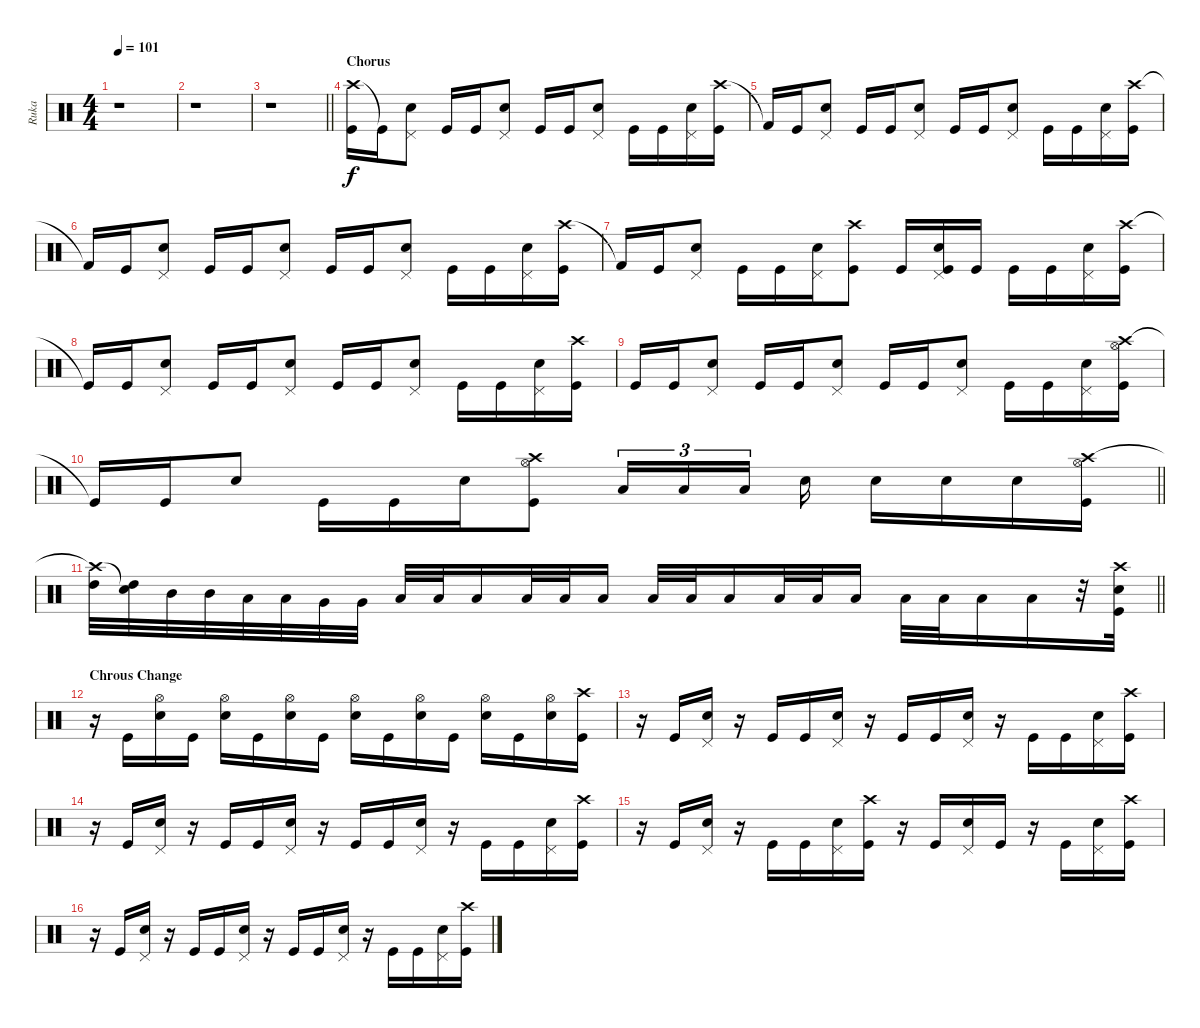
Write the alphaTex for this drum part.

\track ("Ruka" "Ruka") {instrument percussion}
\staff {score}
\articulation defaults
\ts (4 4)
\tempo 101
\clef neutral
\ks c
r.1{dy f} |
r.1 |
\barLineRight lightlight
r.1 |
\section ("" "Chorus")
("Crash high (hit)" "Kick (hit)").16 "Kick (hit)"{t}.16 ("Pedal Hi-Hat (hit)" "Snare (hit) 2").8 "Kick (hit)".16 "Kick (hit)".16 ("Pedal Hi-Hat (hit)" "Snare (hit) 2").8 "Kick (hit)".16 "Kick (hit)".16 ("Pedal Hi-Hat (hit)" "Snare (hit) 2").8 "Kick (hit)".16 "Kick (hit)".16 ("Pedal Hi-Hat (hit)" "Snare (hit) 2").16 ("Crash high (hit)" "Kick (hit)").16 |
"Kick (hit) 2"{t}.16 "Kick (hit)".16 ("Pedal Hi-Hat (hit)" "Snare (hit) 2").8 "Kick (hit)".16 "Kick (hit)".16 ("Pedal Hi-Hat (hit)" "Snare (hit) 2").8 "Kick (hit)".16 "Kick (hit)".16 ("Pedal Hi-Hat (hit)" "Snare (hit) 2").8 "Kick (hit)".16 "Kick (hit)".16 ("Pedal Hi-Hat (hit)" "Snare (hit) 2").16 ("Crash high (hit)" "Kick (hit)").16 |
"Kick (hit) 2"{t}.16 "Kick (hit)".16 ("Pedal Hi-Hat (hit)" "Snare (hit) 2").8 "Kick (hit)".16 "Kick (hit)".16 ("Pedal Hi-Hat (hit)" "Snare (hit) 2").8 "Kick (hit)".16 "Kick (hit)".16 ("Pedal Hi-Hat (hit)" "Snare (hit) 2").8 "Kick (hit)".16 "Kick (hit)".16 ("Pedal Hi-Hat (hit)" "Snare (hit) 2").16 ("Crash high (hit)" "Kick (hit)").16 |
"Kick (hit) 2"{t}.16 "Kick (hit)".16 ("Pedal Hi-Hat (hit)" "Snare (hit) 2").8 "Kick (hit)".16 "Kick (hit)".16 ("Pedal Hi-Hat (hit)" "Snare (hit) 2").16 ("Crash high (hit)" "Kick (hit)").8 "Kick (hit)".16 ("Pedal Hi-Hat (hit)" "Snare (hit) 2" "Kick (hit)").16 "Kick (hit)".16 "Kick (hit)".16 "Kick (hit)".16 ("Pedal Hi-Hat (hit)" "Snare (hit) 2").16 ("Crash high (hit)" "Kick (hit)").16 |
"Kick (hit)"{t}.16 "Kick (hit)".16 ("Pedal Hi-Hat (hit)" "Snare (hit) 2").8 "Kick (hit)".16 "Kick (hit)".16 ("Pedal Hi-Hat (hit)" "Snare (hit) 2").8 "Kick (hit)".16 "Kick (hit)".16 ("Pedal Hi-Hat (hit)" "Snare (hit) 2").8 "Kick (hit)".16 "Kick (hit)".16 ("Pedal Hi-Hat (hit)" "Snare (hit) 2").16 ("Crash high (hit)" "Kick (hit)").16 |
"Kick (hit)".16 "Kick (hit)".16 ("Pedal Hi-Hat (hit)" "Snare (hit) 2").8 "Kick (hit)".16 "Kick (hit)".16 ("Pedal Hi-Hat (hit)" "Snare (hit) 2").8 "Kick (hit)".16 "Kick (hit)".16 ("Pedal Hi-Hat (hit)" "Snare (hit) 2").8 "Kick (hit)".16 "Kick (hit)".16 ("Pedal Hi-Hat (hit)" "Snare (hit) 2").16 ("Crash high (hit)" "Hi-Hat (open)" "Kick (hit)").16 |
\barLineRight lightlight "Kick (hit)"{t}.16 "Kick (hit)".16 "Snare (hit) 2".8 "Kick (hit)".16 "Kick (hit)".16 "Snare (hit) 2".16
("Crash high (hit)" "Hi-Hat (open)" "Kick (hit)").8 "Low Tom (hit)".16{tu (3 2)} "Low Tom (hit)".16{tu (3 2)} "Low Tom (hit)".16{tu (3 2) beam splitsecondary} "Snare (hit) 2".16 "Snare (hit) 2".16 "Snare (hit) 2".16 "Snare (hit) 2".16 ("Crash high (hit)" "Hi-Hat (open)" "Kick (hit)").16 |
\barLineRight lightlight
("Crash high (hit)"{t} "High Tom (hit)").32 ("Snare (hit)"{t} "High Tom (hit)").32 "Mid Tom (hit)".32 "Mid Tom (hit)".32 "Low Tom (hit)".32 "Low Tom (hit)".32 "Very Low Tom (hit)".32 "Very Low Tom (hit)".32 "Low Tom (hit)".32 "Low Tom (hit)".32 "Low Tom (hit)".16 "Low Tom (hit)".32 "Low Tom (hit)".32 "Low Tom (hit)".16 "Low Tom (hit)".32 "Low Tom (hit)".32 "Low Tom (hit)".16 "Low Tom (hit)".32 "Low Tom (hit)".32 "Low Tom (hit)".16 "Low Tom (hit)".32 "Low Tom (hit)".32 "Low Tom (hit)".16 "Low Tom (hit)".16 r.32 ("Crash high (hit)" "Snare (hit) 2" "Kick (hit)").32 |
\section ("" "Chrous Change")
r.16 "Kick (hit)".16 ("Hi-Hat (open)" "Snare (hit) 2").16 "Kick (hit)".16 ("Hi-Hat (open)" "Snare (hit) 2").16 "Kick (hit)".16 ("Hi-Hat (open)" "Snare (hit) 2").16 "Kick (hit)".16 ("Hi-Hat (open)" "Snare (hit) 2").16 "Kick (hit)".16 ("Hi-Hat (open)" "Snare (hit) 2").16 "Kick (hit)".16 ("Hi-Hat (open)" "Snare (hit) 2").16 "Kick (hit)".16 ("Hi-Hat (open)" "Snare (hit) 2").16 ("Crash high (hit)" "Kick (hit)").16 |
r.16 "Kick (hit)".16 ("Pedal Hi-Hat (hit)" "Snare (hit) 2").16 r.16 "Kick (hit)".16 "Kick (hit)".16 ("Pedal Hi-Hat (hit)" "Snare (hit) 2").16 r.16 "Kick (hit)".16 "Kick (hit)".16 ("Pedal Hi-Hat (hit)" "Snare (hit) 2").16 r.16 "Kick (hit)".16 "Kick (hit)".16 ("Pedal Hi-Hat (hit)" "Snare (hit) 2").16 ("Crash high (hit)" "Kick (hit)").16 |
r.16 "Kick (hit)".16 ("Pedal Hi-Hat (hit)" "Snare (hit) 2").16 r.16 "Kick (hit)".16 "Kick (hit)".16 ("Pedal Hi-Hat (hit)" "Snare (hit) 2").16 r.16 "Kick (hit)".16 "Kick (hit)".16 ("Pedal Hi-Hat (hit)" "Snare (hit) 2").16 r.16 "Kick (hit)".16 "Kick (hit)".16 ("Pedal Hi-Hat (hit)" "Snare (hit) 2").16 ("Crash high (hit)" "Kick (hit)").16 |
r.16 "Kick (hit)".16 ("Pedal Hi-Hat (hit)" "Snare (hit) 2").16 r.16 "Kick (hit)".16 "Kick (hit)".16 ("Pedal Hi-Hat (hit)" "Snare (hit) 2").16 ("Crash high (hit)" "Kick (hit)").16 r.16 "Kick (hit)".16 ("Pedal Hi-Hat (hit)" "Snare (hit) 2").16 "Kick (hit)".16 r.16 "Kick (hit)".16 ("Pedal Hi-Hat (hit)" "Snare (hit) 2").16 ("Crash high (hit)" "Kick (hit)").16 |
r.16 "Kick (hit)".16 ("Pedal Hi-Hat (hit)" "Snare (hit) 2").16 r.16 "Kick (hit)".16 "Kick (hit)".16 ("Pedal Hi-Hat (hit)" "Snare (hit) 2").16 r.16 "Kick (hit)".16 "Kick (hit)".16 ("Pedal Hi-Hat (hit)" "Snare (hit) 2").16 r.16 "Kick (hit)".16 "Kick (hit)".16 ("Pedal Hi-Hat (hit)" "Snare (hit) 2").16 ("Crash high (hit)" "Kick (hit)").16
